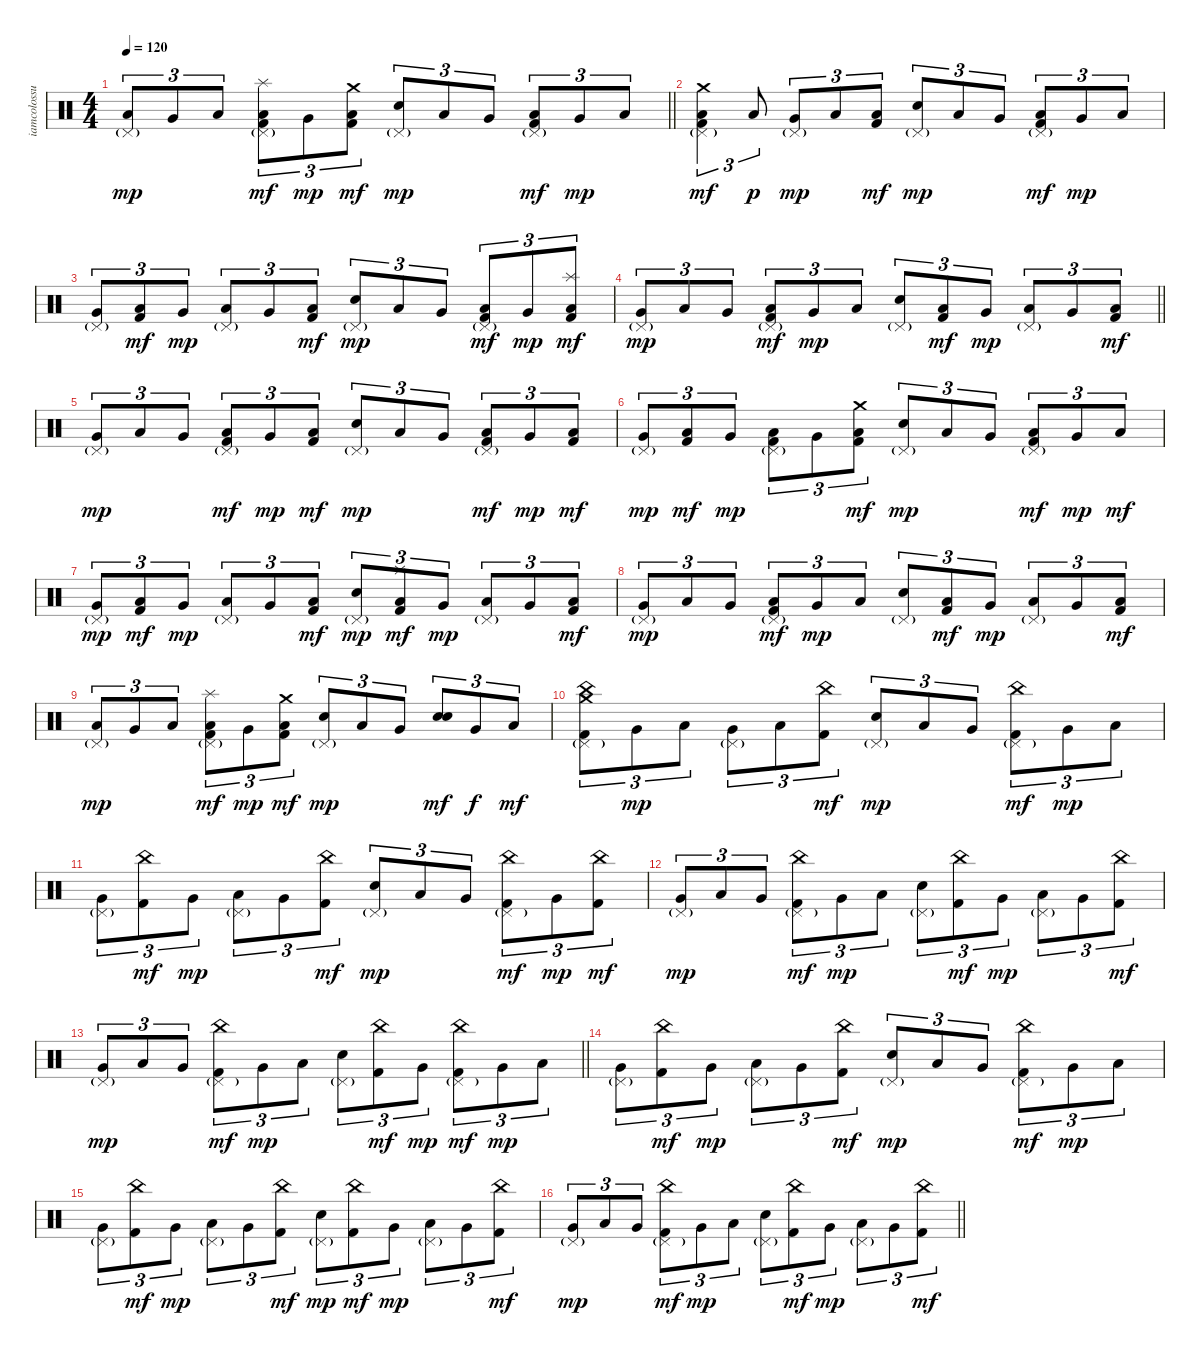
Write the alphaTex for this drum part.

\track ("iamcolossus(Thomas Haake)" "iamcolossu") {instrument percussion}
\staff {score}
\articulation defaults
\ts (4 4)
\tempo 120
\clef neutral
\barLineRight lightlight
\ks c
("Pedal Hi-Hat (hit)"{g} "Low Floor Tom (hit)").8{tu (3 2) dy mp} "Very Low Tom (hit)".8{tu (3 2)} "Low Floor Tom (hit)".8{tu (3 2)} ("Pedal Hi-Hat (hit)"{g} "Splash (hit)" "Low Floor Tom (hit)" "Kick (hit) 2").8{tu (3 2) dy mf} "Very Low Tom (hit)".8{tu (3 2) dy mp} ("Crash medium (hit)" "Low Floor Tom (hit)" "Kick (hit) 2").8{tu (3 2) dy mf} ("Pedal Hi-Hat (hit)"{g} "Electric Snare (hit)").8{tu (3 2) dy mp} "Low Floor Tom (hit)".8{tu (3 2)} "Very Low Tom (hit)".8{tu (3 2)} ("Pedal Hi-Hat (hit)"{g} "Low Floor Tom (hit)" "Kick (hit) 2").8{tu (3 2) dy mf} "Very Low Tom (hit)".8{tu (3 2) dy mp} "Low Floor Tom (hit)".8{tu (3 2)} |
("Pedal Hi-Hat (hit)"{g} "Crash medium (hit)" "Low Floor Tom (hit)" "Kick (hit) 2").4{tu (3 2) dy mf} "Low Floor Tom (hit)".8{tu (3 2) dy p} ("Pedal Hi-Hat (hit)"{g} "Very Low Tom (hit)").8{tu (3 2) dy mp} "Low Floor Tom (hit)".8{tu (3 2)} ("Low Floor Tom (hit)" "Kick (hit) 2").8{tu (3 2) dy mf} ("Pedal Hi-Hat (hit)"{g} "Electric Snare (hit)").8{tu (3 2) dy mp} "Low Floor Tom (hit)".8{tu (3 2)} "Very Low Tom (hit)".8{tu (3 2)} ("Pedal Hi-Hat (hit)"{g} "Low Floor Tom (hit)" "Kick (hit) 2").8{tu (3 2) dy mf} "Very Low Tom (hit)".8{tu (3 2) dy mp} "Low Floor Tom (hit)".8{tu (3 2)} |
("Pedal Hi-Hat (hit)"{g} "Very Low Tom (hit)").8{tu (3 2)} ("Low Floor Tom (hit)" "Kick (hit) 2").8{tu (3 2) dy mf} "Very Low Tom (hit)".8{tu (3 2) dy mp} ("Pedal Hi-Hat (hit)"{g} "Low Floor Tom (hit)").8{tu (3 2)} "Very Low Tom (hit)".8{tu (3 2)} ("Low Floor Tom (hit)" "Kick (hit) 2").8{tu (3 2) dy mf} ("Pedal Hi-Hat (hit)"{g} "Electric Snare (hit)").8{tu (3 2) dy mp} "Low Floor Tom (hit)".8{tu (3 2)} "Very Low Tom (hit)".8{tu (3 2)} ("Pedal Hi-Hat (hit)"{g} "Low Floor Tom (hit)" "Kick (hit) 2").8{tu (3 2) dy mf} "Very Low Tom (hit)".8{tu (3 2) dy mp} ("Splash (hit)" "Low Floor Tom (hit)" "Kick (hit) 2").8{tu (3 2) dy mf} |
\barLineRight lightlight
("Pedal Hi-Hat (hit)"{g} "Very Low Tom (hit)").8{tu (3 2) dy mp} "Low Floor Tom (hit)".8{tu (3 2)} "Very Low Tom (hit)".8{tu (3 2)} ("Pedal Hi-Hat (hit)"{g} "Low Floor Tom (hit)" "Kick (hit) 2").8{tu (3 2) dy mf} "Very Low Tom (hit)".8{tu (3 2) dy mp} "Low Floor Tom (hit)".8{tu (3 2)} ("Pedal Hi-Hat (hit)"{g} "Electric Snare (hit)").8{tu (3 2)} ("Low Floor Tom (hit)" "Kick (hit) 2").8{tu (3 2) dy mf} "Very Low Tom (hit)".8{tu (3 2) dy mp} ("Pedal Hi-Hat (hit)"{g} "Low Floor Tom (hit)").8{tu (3 2)} "Very Low Tom (hit)".8{tu (3 2)} ("Low Floor Tom (hit)" "Kick (hit) 2").8{tu (3 2) dy mf} |
("Pedal Hi-Hat (hit)"{g} "Very Low Tom (hit)").8{tu (3 2) dy mp} "Low Floor Tom (hit)".8{tu (3 2)} "Very Low Tom (hit)".8{tu (3 2)} ("Pedal Hi-Hat (hit)"{g} "Low Floor Tom (hit)" "Kick (hit) 2").8{tu (3 2) dy mf} "Very Low Tom (hit)".8{tu (3 2) dy mp} ("Low Floor Tom (hit)" "Kick (hit) 2").8{tu (3 2) dy mf} ("Pedal Hi-Hat (hit)"{g} "Electric Snare (hit)").8{tu (3 2) dy mp} "Low Floor Tom (hit)".8{tu (3 2)} "Very Low Tom (hit)".8{tu (3 2)} ("Pedal Hi-Hat (hit)"{g} "Low Floor Tom (hit)" "Kick (hit) 2").8{tu (3 2) dy mf} "Very Low Tom (hit)".8{tu (3 2) dy mp} ("Low Floor Tom (hit)" "Kick (hit) 2").8{tu (3 2) dy mf} |
("Pedal Hi-Hat (hit)"{g} "Very Low Tom (hit)").8{tu (3 2) dy mp} ("Low Floor Tom (hit)" "Kick (hit) 2").8{tu (3 2) dy mf} "Very Low Tom (hit)".8{tu (3 2) dy mp} ("Pedal Hi-Hat (hit)"{g} "Low Floor Tom (hit)" "Kick (hit) 2").8{tu (3 2)} "Very Low Tom (hit)".8{tu (3 2)} ("Crash medium (hit)" "Low Floor Tom (hit)" "Kick (hit) 2").8{tu (3 2) dy mf} ("Pedal Hi-Hat (hit)"{g} "Electric Snare (hit)").8{tu (3 2) dy mp} "Low Floor Tom (hit)".8{tu (3 2)} "Very Low Tom (hit)".8{tu (3 2)} ("Pedal Hi-Hat (hit)"{g} "Low Floor Tom (hit)" "Kick (hit) 2").8{tu (3 2) dy mf} "Very Low Tom (hit)".8{tu (3 2) dy mp} "Low Floor Tom (hit)".8{tu (3 2) dy mf} |
("Pedal Hi-Hat (hit)"{g} "Very Low Tom (hit)").8{tu (3 2) dy mp} ("Low Floor Tom (hit)" "Kick (hit) 2").8{tu (3 2) dy mf} "Very Low Tom (hit)".8{tu (3 2) dy mp} ("Pedal Hi-Hat (hit)"{g} "Low Floor Tom (hit)").8{tu (3 2)} "Very Low Tom (hit)".8{tu (3 2)} ("Low Floor Tom (hit)" "Kick (hit) 2").8{tu (3 2) dy mf} ("Pedal Hi-Hat (hit)"{g} "Electric Snare (hit)").8{tu (3 2) dy mp} ("Splash (hit)" "Low Floor Tom (hit)" "Kick (hit) 2").8{tu (3 2) dy mf} "Very Low Tom (hit)".8{tu (3 2) dy mp} ("Pedal Hi-Hat (hit)"{g} "Low Floor Tom (hit)").8{tu (3 2)} "Very Low Tom (hit)".8{tu (3 2)} ("Low Floor Tom (hit)" "Kick (hit) 2").8{tu (3 2) dy mf} |
("Pedal Hi-Hat (hit)"{g} "Very Low Tom (hit)").8{tu (3 2) dy mp} "Low Floor Tom (hit)".8{tu (3 2)} "Very Low Tom (hit)".8{tu (3 2)} ("Pedal Hi-Hat (hit)"{g} "Low Floor Tom (hit)" "Kick (hit) 2").8{tu (3 2) dy mf} "Very Low Tom (hit)".8{tu (3 2) dy mp} "Low Floor Tom (hit)".8{tu (3 2)} ("Pedal Hi-Hat (hit)"{g} "Electric Snare (hit)").8{tu (3 2)} ("Low Floor Tom (hit)" "Kick (hit) 2").8{tu (3 2) dy mf} "Very Low Tom (hit)".8{tu (3 2) dy mp} ("Pedal Hi-Hat (hit)"{g} "Low Floor Tom (hit)").8{tu (3 2)} "Very Low Tom (hit)".8{tu (3 2)} ("Low Floor Tom (hit)" "Kick (hit) 2").8{tu (3 2) dy mf} |
("Pedal Hi-Hat (hit)"{g} "Low Floor Tom (hit)").8{tu (3 2) dy mp} "Very Low Tom (hit)".8{tu (3 2)} "Low Floor Tom (hit)".8{tu (3 2)} ("Pedal Hi-Hat (hit)"{g} "Splash (hit)" "Low Floor Tom (hit)" "Kick (hit) 2").8{tu (3 2) dy mf} "Very Low Tom (hit)".8{tu (3 2) dy mp} ("Crash medium (hit)" "Low Floor Tom (hit)" "Kick (hit) 2").8{tu (3 2) dy mf} ("Pedal Hi-Hat (hit)"{g} "Electric Snare (hit)").8{tu (3 2) dy mp} "Low Floor Tom (hit)".8{tu (3 2)} "Very Low Tom (hit)".8{tu (3 2)} ("Electric Snare (hit)" "Electric Snare (hit)").8{tu (3 2) bd 120 dy mf} "Very Low Tom (hit)".8{tu (3 2) dy f} "Low Floor Tom (hit)".8{tu (3 2) dy mf} |
("Pedal Hi-Hat (hit)"{g} "Crash medium (hit)" "China (hit)" "Kick (hit) 2").8{tu (3 2)} "Very Low Tom (hit)".8{tu (3 2) dy mp} "Low Floor Tom (hit)".8{tu (3 2)} ("Pedal Hi-Hat (hit)"{g} "Very Low Tom (hit)").8{tu (3 2)} "Low Floor Tom (hit)".8{tu (3 2)} ("China (hit)" "Kick (hit) 2").8{tu (3 2) dy mf} ("Pedal Hi-Hat (hit)"{g} "Electric Snare (hit)").8{tu (3 2) dy mp} "Low Floor Tom (hit)".8{tu (3 2)} "Very Low Tom (hit)".8{tu (3 2)} ("Pedal Hi-Hat (hit)"{g} "China (hit)" "Kick (hit) 2").8{tu (3 2) dy mf} "Very Low Tom (hit)".8{tu (3 2) dy mp} "Low Floor Tom (hit)".8{tu (3 2)} |
("Pedal Hi-Hat (hit)"{g} "Very Low Tom (hit)").8{tu (3 2)} ("China (hit)" "Kick (hit) 2").8{tu (3 2) dy mf} "Very Low Tom (hit)".8{tu (3 2) dy mp} ("Pedal Hi-Hat (hit)"{g} "Low Floor Tom (hit)").8{tu (3 2)} "Very Low Tom (hit)".8{tu (3 2)} ("China (hit)" "Kick (hit) 2").8{tu (3 2) dy mf} ("Pedal Hi-Hat (hit)"{g} "Electric Snare (hit)").8{tu (3 2) dy mp} "Low Floor Tom (hit)".8{tu (3 2)} "Very Low Tom (hit)".8{tu (3 2)} ("Pedal Hi-Hat (hit)"{g} "China (hit)" "Kick (hit) 2").8{tu (3 2) dy mf} "Very Low Tom (hit)".8{tu (3 2) dy mp} ("China (hit)" "Kick (hit) 2").8{tu (3 2) dy mf} |
("Pedal Hi-Hat (hit)"{g} "Very Low Tom (hit)").8{tu (3 2) dy mp} "Low Floor Tom (hit)".8{tu (3 2)} "Very Low Tom (hit)".8{tu (3 2)} ("Pedal Hi-Hat (hit)"{g} "China (hit)" "Kick (hit) 2").8{tu (3 2) dy mf} "Very Low Tom (hit)".8{tu (3 2) dy mp} "Low Floor Tom (hit)".8{tu (3 2)} ("Pedal Hi-Hat (hit)"{g} "Electric Snare (hit)").8{tu (3 2)} ("China (hit)" "Kick (hit) 2").8{tu (3 2) dy mf} "Very Low Tom (hit)".8{tu (3 2) dy mp} ("Pedal Hi-Hat (hit)"{g} "Low Floor Tom (hit)").8{tu (3 2)} "Very Low Tom (hit)".8{tu (3 2)} ("China (hit)" "Kick (hit) 2").8{tu (3 2) dy mf} |
\barLineRight lightlight
("Pedal Hi-Hat (hit)"{g} "Very Low Tom (hit)").8{tu (3 2) dy mp} "Low Floor Tom (hit)".8{tu (3 2)} "Very Low Tom (hit)".8{tu (3 2)} ("Pedal Hi-Hat (hit)"{g} "China (hit)" "Kick (hit) 2").8{tu (3 2) dy mf} "Very Low Tom (hit)".8{tu (3 2) dy mp} "Low Floor Tom (hit)".8{tu (3 2)} ("Pedal Hi-Hat (hit)"{g} "Electric Snare (hit)").8{tu (3 2)} ("China (hit)" "Kick (hit) 2").8{tu (3 2) dy mf} "Very Low Tom (hit)".8{tu (3 2) dy mp} ("Pedal Hi-Hat (hit)"{g} "China (hit)" "Kick (hit) 2").8{tu (3 2) dy mf} "Very Low Tom (hit)".8{tu (3 2) dy mp} "Low Floor Tom (hit)".8{tu (3 2)} |
("Pedal Hi-Hat (hit)"{g} "Very Low Tom (hit)").8{tu (3 2)} ("China (hit)" "Kick (hit) 2").8{tu (3 2) dy mf} "Very Low Tom (hit)".8{tu (3 2) dy mp} ("Pedal Hi-Hat (hit)"{g} "Low Floor Tom (hit)").8{tu (3 2)} "Very Low Tom (hit)".8{tu (3 2)} ("China (hit)" "Kick (hit) 2").8{tu (3 2) dy mf} ("Pedal Hi-Hat (hit)"{g} "Electric Snare (hit)").8{tu (3 2) dy mp} "Low Floor Tom (hit)".8{tu (3 2)} "Very Low Tom (hit)".8{tu (3 2)} ("Pedal Hi-Hat (hit)"{g} "China (hit)" "Kick (hit) 2").8{tu (3 2) dy mf} "Very Low Tom (hit)".8{tu (3 2) dy mp} "Low Floor Tom (hit)".8{tu (3 2)} |
("Pedal Hi-Hat (hit)"{g} "Very Low Tom (hit)").8{tu (3 2)} ("China (hit)" "Kick (hit) 2").8{tu (3 2) dy mf} "Very Low Tom (hit)".8{tu (3 2) dy mp} ("Pedal Hi-Hat (hit)"{g} "Low Floor Tom (hit)").8{tu (3 2)} "Very Low Tom (hit)".8{tu (3 2)} ("China (hit)" "Kick (hit) 2").8{tu (3 2) dy mf} ("Pedal Hi-Hat (hit)"{g} "Electric Snare (hit)").8{tu (3 2) dy mp} ("China (hit)" "Kick (hit) 2").8{tu (3 2) dy mf} "Very Low Tom (hit)".8{tu (3 2) dy mp} ("Pedal Hi-Hat (hit)"{g} "Low Floor Tom (hit)").8{tu (3 2)} "Very Low Tom (hit)".8{tu (3 2)} ("China (hit)" "Kick (hit) 2").8{tu (3 2) dy mf} |
\barLineRight lightlight
("Pedal Hi-Hat (hit)"{g} "Very Low Tom (hit)").8{tu (3 2) dy mp} "Low Floor Tom (hit)".8{tu (3 2)} "Very Low Tom (hit)".8{tu (3 2)} ("Pedal Hi-Hat (hit)"{g} "China (hit)" "Kick (hit) 2").8{tu (3 2) dy mf} "Very Low Tom (hit)".8{tu (3 2) dy mp} "Low Floor Tom (hit)".8{tu (3 2)} ("Pedal Hi-Hat (hit)"{g} "Electric Snare (hit)").8{tu (3 2)} ("China (hit)" "Kick (hit) 2").8{tu (3 2) dy mf} "Very Low Tom (hit)".8{tu (3 2) dy mp} ("Pedal Hi-Hat (hit)"{g} "Low Floor Tom (hit)").8{tu (3 2)} "Very Low Tom (hit)".8{tu (3 2)} ("China (hit)" "Kick (hit) 2").8{tu (3 2) dy mf}
